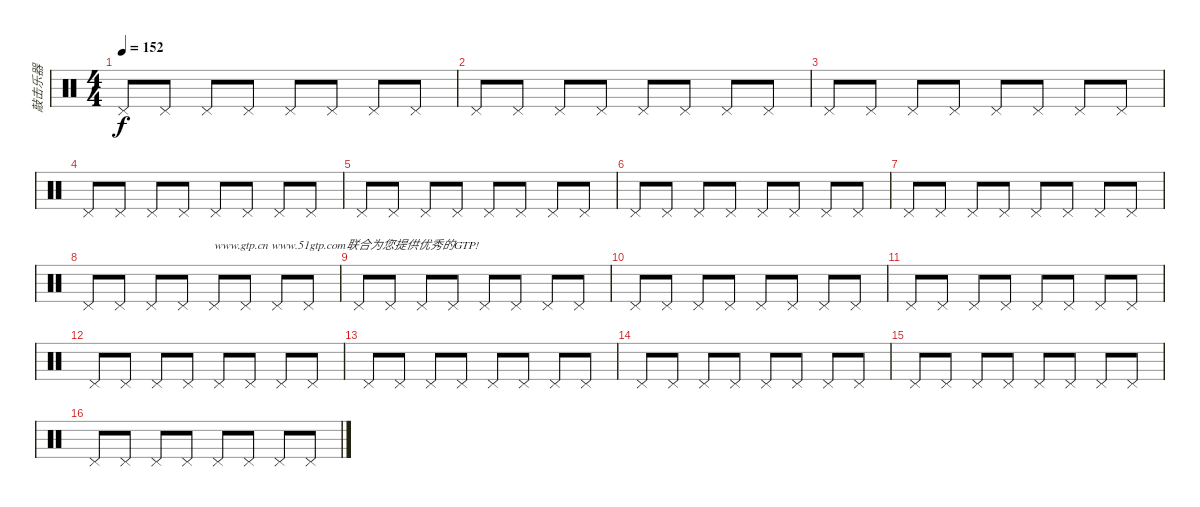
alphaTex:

\track ("敲击乐器" "敲击乐器") {instrument percussion}
\staff {score}
\articulation defaults
\ts (4 4)
\tempo 152
\clef neutral
\ks c "Pedal Hi-Hat (hit)".8{dy f} "Pedal Hi-Hat (hit)".8 "Pedal Hi-Hat (hit)".8 "Pedal Hi-Hat (hit)".8 "Pedal Hi-Hat (hit)".8 "Pedal Hi-Hat (hit)".8 "Pedal Hi-Hat (hit)".8 "Pedal Hi-Hat (hit)".8
|
"Pedal Hi-Hat (hit)".8 "Pedal Hi-Hat (hit)".8 "Pedal Hi-Hat (hit)".8 "Pedal Hi-Hat (hit)".8 "Pedal Hi-Hat (hit)".8 "Pedal Hi-Hat (hit)".8 "Pedal Hi-Hat (hit)".8 "Pedal Hi-Hat (hit)".8 |
"Pedal Hi-Hat (hit)".8 "Pedal Hi-Hat (hit)".8 "Pedal Hi-Hat (hit)".8 "Pedal Hi-Hat (hit)".8 "Pedal Hi-Hat (hit)".8 "Pedal Hi-Hat (hit)".8 "Pedal Hi-Hat (hit)".8 "Pedal Hi-Hat (hit)".8 |
"Pedal Hi-Hat (hit)".8 "Pedal Hi-Hat (hit)".8 "Pedal Hi-Hat (hit)".8 "Pedal Hi-Hat (hit)".8 "Pedal Hi-Hat (hit)".8 "Pedal Hi-Hat (hit)".8 "Pedal Hi-Hat (hit)".8 "Pedal Hi-Hat (hit)".8 |
"Pedal Hi-Hat (hit)".8 "Pedal Hi-Hat (hit)".8 "Pedal Hi-Hat (hit)".8 "Pedal Hi-Hat (hit)".8 "Pedal Hi-Hat (hit)".8 "Pedal Hi-Hat (hit)".8 "Pedal Hi-Hat (hit)".8 "Pedal Hi-Hat (hit)".8 |
"Pedal Hi-Hat (hit)".8 "Pedal Hi-Hat (hit)".8 "Pedal Hi-Hat (hit)".8 "Pedal Hi-Hat (hit)".8 "Pedal Hi-Hat (hit)".8 "Pedal Hi-Hat (hit)".8 "Pedal Hi-Hat (hit)".8 "Pedal Hi-Hat (hit)".8 |
"Pedal Hi-Hat (hit)".8 "Pedal Hi-Hat (hit)".8 "Pedal Hi-Hat (hit)".8 "Pedal Hi-Hat (hit)".8 "Pedal Hi-Hat (hit)".8 "Pedal Hi-Hat (hit)".8 "Pedal Hi-Hat (hit)".8 "Pedal Hi-Hat (hit)".8 |
"Pedal Hi-Hat (hit)".8 "Pedal Hi-Hat (hit)".8 "Pedal Hi-Hat (hit)".8 "Pedal Hi-Hat (hit)".8 "Pedal Hi-Hat (hit)".8{txt "www.gtp.cn www.51gtp.com联合为您提供优秀的GTP!"} "Pedal Hi-Hat (hit)".8 "Pedal Hi-Hat (hit)".8 "Pedal Hi-Hat (hit)".8 |
"Pedal Hi-Hat (hit)".8 "Pedal Hi-Hat (hit)".8 "Pedal Hi-Hat (hit)".8 "Pedal Hi-Hat (hit)".8 "Pedal Hi-Hat (hit)".8 "Pedal Hi-Hat (hit)".8 "Pedal Hi-Hat (hit)".8 "Pedal Hi-Hat (hit)".8 |
"Pedal Hi-Hat (hit)".8 "Pedal Hi-Hat (hit)".8 "Pedal Hi-Hat (hit)".8 "Pedal Hi-Hat (hit)".8 "Pedal Hi-Hat (hit)".8 "Pedal Hi-Hat (hit)".8 "Pedal Hi-Hat (hit)".8 "Pedal Hi-Hat (hit)".8 |
"Pedal Hi-Hat (hit)".8 "Pedal Hi-Hat (hit)".8 "Pedal Hi-Hat (hit)".8 "Pedal Hi-Hat (hit)".8 "Pedal Hi-Hat (hit)".8 "Pedal Hi-Hat (hit)".8 "Pedal Hi-Hat (hit)".8 "Pedal Hi-Hat (hit)".8 |
"Pedal Hi-Hat (hit)".8 "Pedal Hi-Hat (hit)".8 "Pedal Hi-Hat (hit)".8 "Pedal Hi-Hat (hit)".8 "Pedal Hi-Hat (hit)".8 "Pedal Hi-Hat (hit)".8 "Pedal Hi-Hat (hit)".8 "Pedal Hi-Hat (hit)".8 |
"Pedal Hi-Hat (hit)".8 "Pedal Hi-Hat (hit)".8 "Pedal Hi-Hat (hit)".8 "Pedal Hi-Hat (hit)".8 "Pedal Hi-Hat (hit)".8 "Pedal Hi-Hat (hit)".8 "Pedal Hi-Hat (hit)".8 "Pedal Hi-Hat (hit)".8 |
"Pedal Hi-Hat (hit)".8 "Pedal Hi-Hat (hit)".8 "Pedal Hi-Hat (hit)".8 "Pedal Hi-Hat (hit)".8 "Pedal Hi-Hat (hit)".8 "Pedal Hi-Hat (hit)".8 "Pedal Hi-Hat (hit)".8 "Pedal Hi-Hat (hit)".8 |
"Pedal Hi-Hat (hit)".8 "Pedal Hi-Hat (hit)".8 "Pedal Hi-Hat (hit)".8 "Pedal Hi-Hat (hit)".8 "Pedal Hi-Hat (hit)".8 "Pedal Hi-Hat (hit)".8 "Pedal Hi-Hat (hit)".8 "Pedal Hi-Hat (hit)".8 |
"Pedal Hi-Hat (hit)".8 "Pedal Hi-Hat (hit)".8 "Pedal Hi-Hat (hit)".8 "Pedal Hi-Hat (hit)".8 "Pedal Hi-Hat (hit)".8 "Pedal Hi-Hat (hit)".8 "Pedal Hi-Hat (hit)".8 "Pedal Hi-Hat (hit)".8
